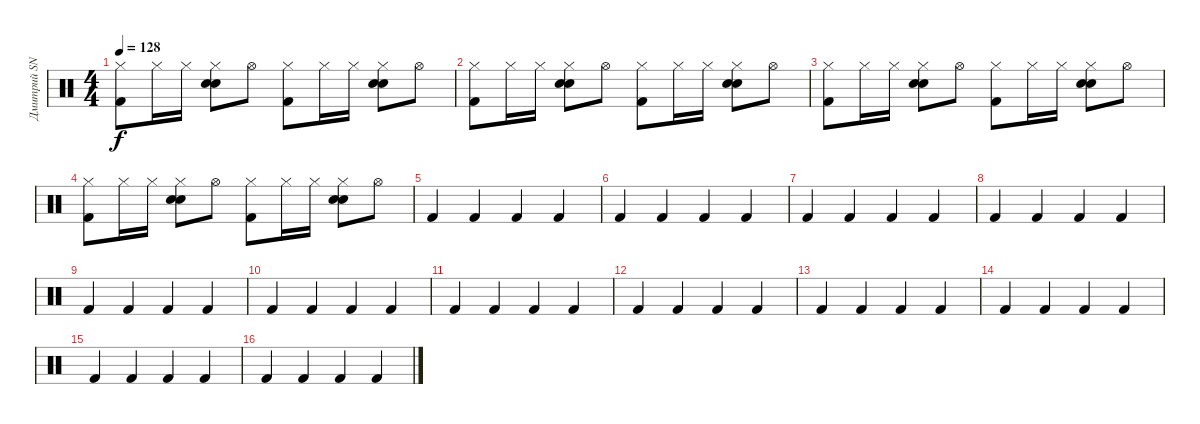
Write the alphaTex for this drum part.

\track ("Дмитрий SNAKE Хакимов" "Дмитрий SN") {instrument percussion}
\staff {score}
\articulation defaults
\ts (4 4)
\tempo 128
\clef neutral
\ks c
("Hi-Hat (closed)" "Kick (hit) 2").8{dy f} "Hi-Hat (closed)".16 "Hi-Hat (closed)".16 ("Hi-Hat (closed)" "Snare (hit) 2" "Hand Clap (hit)").8 "Hi-Hat (open)".8 ("Hi-Hat (closed)" "Kick (hit) 2").8 "Hi-Hat (closed)".16 "Hi-Hat (closed)".16 ("Hi-Hat (closed)" "Snare (hit) 2" "Hand Clap (hit)").8 "Hi-Hat (open)".8 |
("Hi-Hat (closed)" "Kick (hit) 2").8 "Hi-Hat (closed)".16 "Hi-Hat (closed)".16 ("Hi-Hat (closed)" "Snare (hit) 2" "Hand Clap (hit)").8 "Hi-Hat (open)".8 ("Hi-Hat (closed)" "Kick (hit) 2").8 "Hi-Hat (closed)".16 "Hi-Hat (closed)".16 ("Hi-Hat (closed)" "Snare (hit) 2" "Hand Clap (hit)").8 "Hi-Hat (open)".8 |
("Hi-Hat (closed)" "Kick (hit) 2").8 "Hi-Hat (closed)".16 "Hi-Hat (closed)".16 ("Hi-Hat (closed)" "Snare (hit) 2" "Hand Clap (hit)").8 "Hi-Hat (open)".8 ("Hi-Hat (closed)" "Kick (hit) 2").8 "Hi-Hat (closed)".16 "Hi-Hat (closed)".16 ("Hi-Hat (closed)" "Snare (hit) 2" "Hand Clap (hit)").8 "Hi-Hat (open)".8 |
("Hi-Hat (closed)" "Kick (hit) 2").8 "Hi-Hat (closed)".16 "Hi-Hat (closed)".16 ("Hi-Hat (closed)" "Snare (hit) 2" "Hand Clap (hit)").8 "Hi-Hat (open)".8 ("Hi-Hat (closed)" "Kick (hit) 2").8 "Hi-Hat (closed)".16 "Hi-Hat (closed)".16 ("Hi-Hat (closed)" "Snare (hit) 2" "Hand Clap (hit)").8 "Hi-Hat (open)".8 |
"Kick (hit) 2".4 "Kick (hit) 2".4 "Kick (hit) 2".4 "Kick (hit) 2".4 |
"Kick (hit) 2".4 "Kick (hit) 2".4 "Kick (hit) 2".4 "Kick (hit) 2".4 |
"Kick (hit) 2".4 "Kick (hit) 2".4 "Kick (hit) 2".4 "Kick (hit) 2".4 |
"Kick (hit) 2".4 "Kick (hit) 2".4 "Kick (hit) 2".4 "Kick (hit) 2".4 |
"Kick (hit) 2".4 "Kick (hit) 2".4 "Kick (hit) 2".4 "Kick (hit) 2".4 |
"Kick (hit) 2".4 "Kick (hit) 2".4 "Kick (hit) 2".4 "Kick (hit) 2".4 |
"Kick (hit) 2".4 "Kick (hit) 2".4 "Kick (hit) 2".4 "Kick (hit) 2".4 |
"Kick (hit) 2".4 "Kick (hit) 2".4 "Kick (hit) 2".4 "Kick (hit) 2".4 |
"Kick (hit) 2".4 "Kick (hit) 2".4 "Kick (hit) 2".4 "Kick (hit) 2".4 |
"Kick (hit) 2".4 "Kick (hit) 2".4 "Kick (hit) 2".4 "Kick (hit) 2".4 |
"Kick (hit) 2".4 "Kick (hit) 2".4 "Kick (hit) 2".4 "Kick (hit) 2".4 |
"Kick (hit) 2".4 "Kick (hit) 2".4 "Kick (hit) 2".4 "Kick (hit) 2".4
